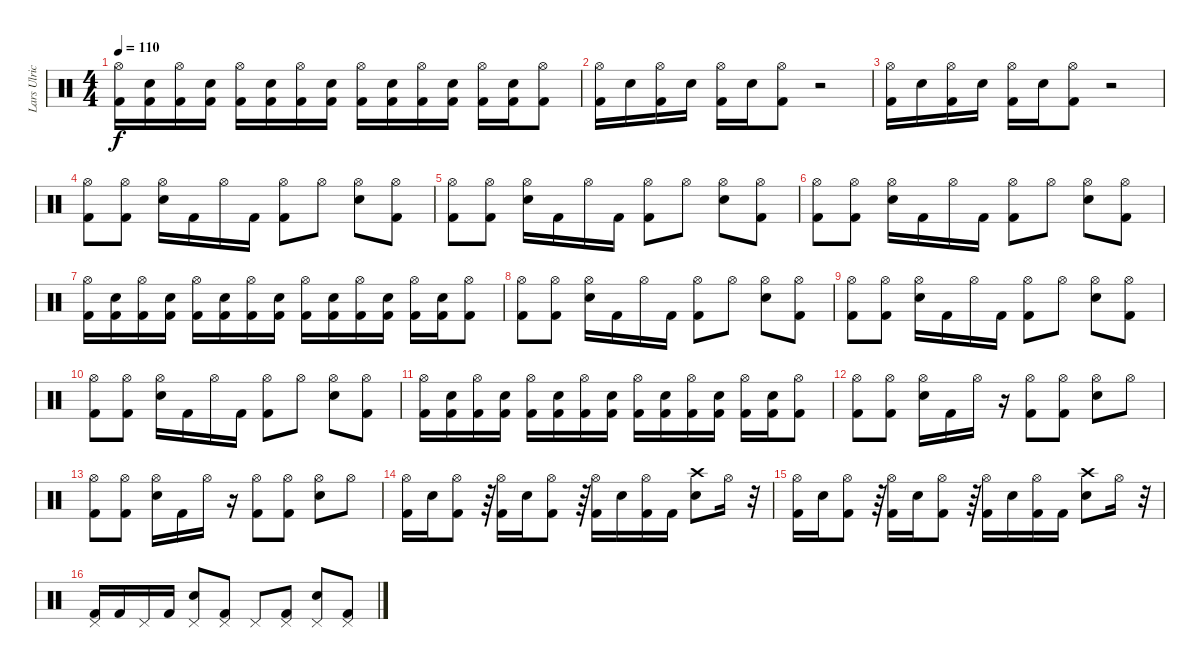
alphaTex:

\track ("Lars Ulrich" "Lars Ulric") {instrument percussion}
\staff {score}
\articulation defaults
\ts (4 4)
\tempo 110
\clef neutral
\ks c
("Hi-Hat (open)" "Kick (hit) 2").16{dy f} ("Electric Snare (hit)" "Kick (hit) 2").16 ("Hi-Hat (open)" "Kick (hit) 2").16 ("Electric Snare (hit)" "Kick (hit) 2").16 ("Hi-Hat (open)" "Kick (hit) 2").16 ("Electric Snare (hit)" "Kick (hit) 2").16 ("Hi-Hat (open)" "Kick (hit) 2").16 ("Electric Snare (hit)" "Kick (hit) 2").16 ("Hi-Hat (open)" "Kick (hit) 2").16 ("Electric Snare (hit)" "Kick (hit) 2").16 ("Hi-Hat (open)" "Kick (hit) 2").16 ("Electric Snare (hit)" "Kick (hit) 2").16 ("Hi-Hat (open)" "Kick (hit) 2").16 ("Electric Snare (hit)" "Kick (hit) 2").16 ("Hi-Hat (open)" "Kick (hit) 2").8 |
("Hi-Hat (open)" "Kick (hit) 2").16 "Electric Snare (hit)".16 ("Hi-Hat (open)" "Kick (hit) 2").16 "Electric Snare (hit)".16 ("Hi-Hat (open)" "Kick (hit) 2").16 "Electric Snare (hit)".16 ("Hi-Hat (open)" "Kick (hit) 2").8 r.2 |
("Hi-Hat (open)" "Kick (hit) 2").16 "Electric Snare (hit)".16 ("Hi-Hat (open)" "Kick (hit) 2").16 "Electric Snare (hit)".16 ("Hi-Hat (open)" "Kick (hit) 2").16 "Electric Snare (hit)".16 ("Hi-Hat (open)" "Kick (hit) 2").8 r.2 |
("Hi-Hat (open)" "Kick (hit) 2").8 ("Hi-Hat (open)" "Kick (hit) 2").8 ("Hi-Hat (open)" "Electric Snare (hit)").16 "Kick (hit) 2".16 "Hi-Hat (open)".16 "Kick (hit) 2".16 ("Hi-Hat (open)" "Kick (hit) 2").8 "Hi-Hat (open)".8 ("Hi-Hat (open)" "Electric Snare (hit)").8 ("Hi-Hat (open)" "Kick (hit) 2").8 |
("Hi-Hat (open)" "Kick (hit) 2").8 ("Hi-Hat (open)" "Kick (hit) 2").8 ("Hi-Hat (open)" "Electric Snare (hit)").16 "Kick (hit) 2".16 "Hi-Hat (open)".16 "Kick (hit) 2".16 ("Hi-Hat (open)" "Kick (hit) 2").8 "Hi-Hat (open)".8 ("Hi-Hat (open)" "Electric Snare (hit)").8 ("Hi-Hat (open)" "Kick (hit) 2").8 |
("Hi-Hat (open)" "Kick (hit) 2").8 ("Hi-Hat (open)" "Kick (hit) 2").8 ("Hi-Hat (open)" "Electric Snare (hit)").16 "Kick (hit) 2".16 "Hi-Hat (open)".16 "Kick (hit) 2".16 ("Hi-Hat (open)" "Kick (hit) 2").8 "Hi-Hat (open)".8 ("Hi-Hat (open)" "Electric Snare (hit)").8 ("Hi-Hat (open)" "Kick (hit) 2").8 |
("Hi-Hat (open)" "Kick (hit) 2").16 ("Electric Snare (hit)" "Kick (hit) 2").16 ("Hi-Hat (open)" "Kick (hit) 2").16 ("Electric Snare (hit)" "Kick (hit) 2").16 ("Hi-Hat (open)" "Kick (hit) 2").16 ("Electric Snare (hit)" "Kick (hit) 2").16 ("Hi-Hat (open)" "Kick (hit) 2").16 ("Electric Snare (hit)" "Kick (hit) 2").16 ("Hi-Hat (open)" "Kick (hit) 2").16 ("Electric Snare (hit)" "Kick (hit) 2").16 ("Hi-Hat (open)" "Kick (hit) 2").16 ("Electric Snare (hit)" "Kick (hit) 2").16 ("Hi-Hat (open)" "Kick (hit) 2").16 ("Electric Snare (hit)" "Kick (hit) 2").16 ("Hi-Hat (open)" "Kick (hit) 2").8 |
("Hi-Hat (open)" "Kick (hit) 2").8 ("Hi-Hat (open)" "Kick (hit) 2").8 ("Hi-Hat (open)" "Electric Snare (hit)").16 "Kick (hit) 2".16 "Hi-Hat (open)".16 "Kick (hit) 2".16 ("Hi-Hat (open)" "Kick (hit) 2").8 "Hi-Hat (open)".8 ("Hi-Hat (open)" "Electric Snare (hit)").8 ("Hi-Hat (open)" "Kick (hit) 2").8 |
("Hi-Hat (open)" "Kick (hit) 2").8 ("Hi-Hat (open)" "Kick (hit) 2").8 ("Hi-Hat (open)" "Electric Snare (hit)").16 "Kick (hit) 2".16 "Hi-Hat (open)".16 "Kick (hit) 2".16 ("Hi-Hat (open)" "Kick (hit) 2").8 "Hi-Hat (open)".8 ("Hi-Hat (open)" "Electric Snare (hit)").8 ("Hi-Hat (open)" "Kick (hit) 2").8 |
("Hi-Hat (open)" "Kick (hit) 2").8 ("Hi-Hat (open)" "Kick (hit) 2").8 ("Hi-Hat (open)" "Electric Snare (hit)").16 "Kick (hit) 2".16 "Hi-Hat (open)".16 "Kick (hit) 2".16 ("Hi-Hat (open)" "Kick (hit) 2").8 "Hi-Hat (open)".8 ("Hi-Hat (open)" "Electric Snare (hit)").8 ("Hi-Hat (open)" "Kick (hit) 2").8 |
("Hi-Hat (open)" "Kick (hit) 2").16 ("Electric Snare (hit)" "Kick (hit) 2").16 ("Hi-Hat (open)" "Kick (hit) 2").16 ("Electric Snare (hit)" "Kick (hit) 2").16 ("Hi-Hat (open)" "Kick (hit) 2").16 ("Electric Snare (hit)" "Kick (hit) 2").16 ("Hi-Hat (open)" "Kick (hit) 2").16 ("Electric Snare (hit)" "Kick (hit) 2").16 ("Hi-Hat (open)" "Kick (hit) 2").16 ("Electric Snare (hit)" "Kick (hit) 2").16 ("Hi-Hat (open)" "Kick (hit) 2").16 ("Electric Snare (hit)" "Kick (hit) 2").16 ("Hi-Hat (open)" "Kick (hit) 2").16 ("Electric Snare (hit)" "Kick (hit) 2").16 ("Hi-Hat (open)" "Kick (hit) 2").8 |
("Hi-Hat (open)" "Kick (hit) 2").8 ("Hi-Hat (open)" "Kick (hit) 2").8 ("Hi-Hat (open)" "Electric Snare (hit)").16 "Kick (hit) 2".16 "Hi-Hat (open)".16 r.16 ("Hi-Hat (open)" "Kick (hit) 2").8 ("Hi-Hat (open)" "Kick (hit) 2").8 ("Hi-Hat (open)" "Electric Snare (hit)").8 "Hi-Hat (open)".8 |
("Hi-Hat (open)" "Kick (hit) 2").8 ("Hi-Hat (open)" "Kick (hit) 2").8 ("Hi-Hat (open)" "Electric Snare (hit)").16 "Kick (hit) 2".16 "Hi-Hat (open)".16 r.16 ("Hi-Hat (open)" "Kick (hit) 2").8 ("Hi-Hat (open)" "Kick (hit) 2").8 ("Hi-Hat (open)" "Electric Snare (hit)").8 "Hi-Hat (open)".8 |
("Hi-Hat (open)" "Kick (hit) 2").16 "Electric Snare (hit)".16 ("Hi-Hat (open)" "Kick (hit) 2").8 r.64 ("Hi-Hat (open)" "Kick (hit) 2").16 "Electric Snare (hit)".16 ("Hi-Hat (open)" "Kick (hit) 2").8 r.64 ("Hi-Hat (open)" "Kick (hit) 2").16 "Electric Snare (hit)".16 ("Hi-Hat (open)" "Kick (hit) 2").16 "Kick (hit) 2".16 ("Crash high (hit)" "Electric Snare (hit)").8 "Hi-Hat (open)".16 r.32 |
("Hi-Hat (open)" "Kick (hit) 2").16 "Electric Snare (hit)".16 ("Hi-Hat (open)" "Kick (hit) 2").8 r.64 ("Hi-Hat (open)" "Kick (hit) 2").16 "Electric Snare (hit)".16 ("Hi-Hat (open)" "Kick (hit) 2").8 r.64 ("Hi-Hat (open)" "Kick (hit) 2").16 "Electric Snare (hit)".16 ("Hi-Hat (open)" "Kick (hit) 2").16 "Kick (hit) 2".16 ("Crash high (hit)" "Electric Snare (hit)").8 "Hi-Hat (open)".16 r.32 |
("Pedal Hi-Hat (hit)" "Kick (hit) 2").16 "Kick (hit) 2".16 "Pedal Hi-Hat (hit)".16 "Kick (hit) 2".16 ("Pedal Hi-Hat (hit)" "Electric Snare (hit)").8 ("Pedal Hi-Hat (hit)" "Kick (hit) 2").8 "Pedal Hi-Hat (hit)".8 ("Pedal Hi-Hat (hit)" "Kick (hit) 2").8 ("Pedal Hi-Hat (hit)" "Electric Snare (hit)").8 ("Pedal Hi-Hat (hit)" "Kick (hit) 2").8
